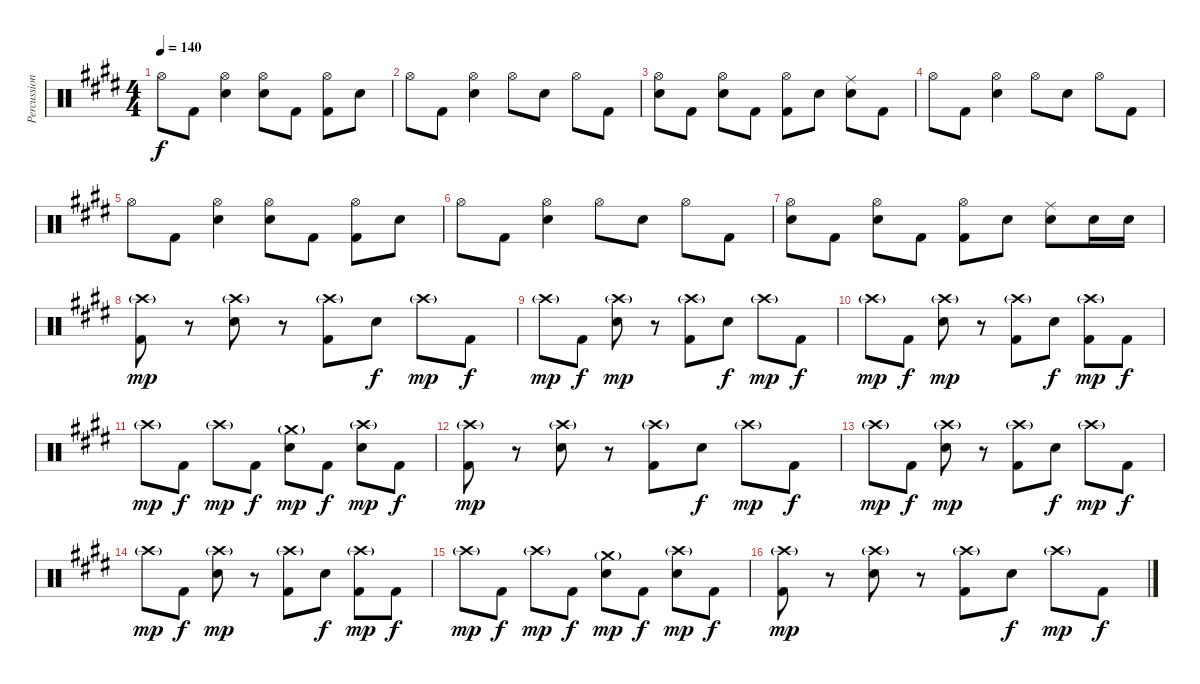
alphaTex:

\track ("Percussion" "Percussion") {instrument percussion}
\staff {score}
\articulation defaults
\ts (4 4)
\tempo 140
\clef neutral
\ks e "Hi-Hat (open)".8{dy f} "Kick (hit) 2".8
("Hi-Hat (open)" "Snare (hit) 2").4 ("Hi-Hat (open)" "Snare (hit) 2").8 "Kick (hit) 2".8 ("Hi-Hat (open)" "Kick (hit) 2").8 "Snare (hit) 2".8 |
"Hi-Hat (open)".8 "Kick (hit) 2".8 ("Hi-Hat (open)" "Snare (hit) 2").4 "Hi-Hat (open)".8 "Snare (hit) 2".8 "Hi-Hat (open)".8 "Kick (hit) 2".8 |
("Hi-Hat (open)" "Snare (hit) 2").8 "Kick (hit) 2".8 ("Hi-Hat (open)" "Snare (hit) 2").8 "Kick (hit) 2".8 ("Hi-Hat (open)" "Kick (hit) 2").8 "Snare (hit) 2".8 ("Ride (middle)" "Snare (hit) 2").8 "Kick (hit) 2".8 |
"Hi-Hat (open)".8 "Kick (hit) 2".8 ("Hi-Hat (open)" "Snare (hit) 2").4 "Hi-Hat (open)".8 "Snare (hit) 2".8 "Hi-Hat (open)".8 "Kick (hit) 2".8 |
"Hi-Hat (open)".8 "Kick (hit) 2".8 ("Hi-Hat (open)" "Snare (hit) 2").4 ("Hi-Hat (open)" "Snare (hit) 2").8 "Kick (hit) 2".8 ("Hi-Hat (open)" "Kick (hit) 2").8 "Snare (hit) 2".8 |
"Hi-Hat (open)".8 "Kick (hit) 2".8 ("Hi-Hat (open)" "Snare (hit) 2").4 "Hi-Hat (open)".8 "Snare (hit) 2".8 "Hi-Hat (open)".8 "Kick (hit) 2".8 |
("Hi-Hat (open)" "Snare (hit) 2").8 "Kick (hit) 2".8 ("Hi-Hat (open)" "Snare (hit) 2").8 "Kick (hit) 2".8 ("Hi-Hat (open)" "Kick (hit) 2").8 "Snare (hit) 2".8 ("Ride (middle)" "Snare (hit) 2").8 "Snare (hit) 2".16 "Snare (hit) 2".16 |
("Crash high (hit)"{g} "Kick (hit) 2").8{dy mp} r.8 ("Crash high (hit)"{g} "Snare (hit) 2").8 r.8 ("Crash high (hit)"{g} "Kick (hit) 2").8 "Snare (hit) 2".8{dy f} "Crash high (hit)"{g}.8{dy mp} "Kick (hit) 2".8{dy f} |
"Crash high (hit)"{g}.8{dy mp} "Kick (hit) 2".8{dy f} ("Crash high (hit)"{g} "Snare (hit) 2").8{dy mp} r.8 ("Crash high (hit)"{g} "Kick (hit) 2").8 "Snare (hit) 2".8{dy f} "Crash high (hit)"{g}.8{dy mp} "Kick (hit) 2".8{dy f} |
"Crash high (hit)"{g}.8{dy mp} "Kick (hit) 2".8{dy f} ("Crash high (hit)"{g} "Snare (hit) 2").8{dy mp} r.8 ("Crash high (hit)"{g} "Kick (hit) 2").8 "Snare (hit) 2".8{dy f} ("Crash high (hit)"{g} "Kick (hit) 2").8{dy mp} "Kick (hit) 2".8{dy f} |
"Crash high (hit)"{g}.8{dy mp} "Kick (hit) 2".8{dy f} "Crash high (hit)"{g}.8{dy mp} "Kick (hit) 2".8{dy f} ("Crash medium (hit)"{g} "Snare (hit) 2").8{dy mp} "Kick (hit) 2".8{dy f} ("Crash high (hit)"{g} "Snare (hit) 2").8{dy mp} "Kick (hit) 2".8{dy f} |
("Crash high (hit)"{g} "Kick (hit) 2").8{dy mp} r.8 ("Crash high (hit)"{g} "Snare (hit) 2").8 r.8 ("Crash high (hit)"{g} "Kick (hit) 2").8 "Snare (hit) 2".8{dy f} "Crash high (hit)"{g}.8{dy mp} "Kick (hit) 2".8{dy f} |
"Crash high (hit)"{g}.8{dy mp} "Kick (hit) 2".8{dy f} ("Crash high (hit)"{g} "Snare (hit) 2").8{dy mp} r.8 ("Crash high (hit)"{g} "Kick (hit) 2").8 "Snare (hit) 2".8{dy f} "Crash high (hit)"{g}.8{dy mp} "Kick (hit) 2".8{dy f} |
"Crash high (hit)"{g}.8{dy mp} "Kick (hit) 2".8{dy f} ("Crash high (hit)"{g} "Snare (hit) 2").8{dy mp} r.8 ("Crash high (hit)"{g} "Kick (hit) 2").8 "Snare (hit) 2".8{dy f} ("Crash high (hit)"{g} "Kick (hit) 2").8{dy mp} "Kick (hit) 2".8{dy f} |
"Crash high (hit)"{g}.8{dy mp} "Kick (hit) 2".8{dy f} "Crash high (hit)"{g}.8{dy mp} "Kick (hit) 2".8{dy f} ("Crash medium (hit)"{g} "Snare (hit) 2").8{dy mp} "Kick (hit) 2".8{dy f} ("Crash high (hit)"{g} "Snare (hit) 2").8{dy mp} "Kick (hit) 2".8{dy f} |
("Crash high (hit)"{g} "Kick (hit) 2").8{dy mp} r.8 ("Crash high (hit)"{g} "Snare (hit) 2").8 r.8 ("Crash high (hit)"{g} "Kick (hit) 2").8 "Snare (hit) 2".8{dy f} "Crash high (hit)"{g}.8{dy mp} "Kick (hit) 2".8{dy f}
